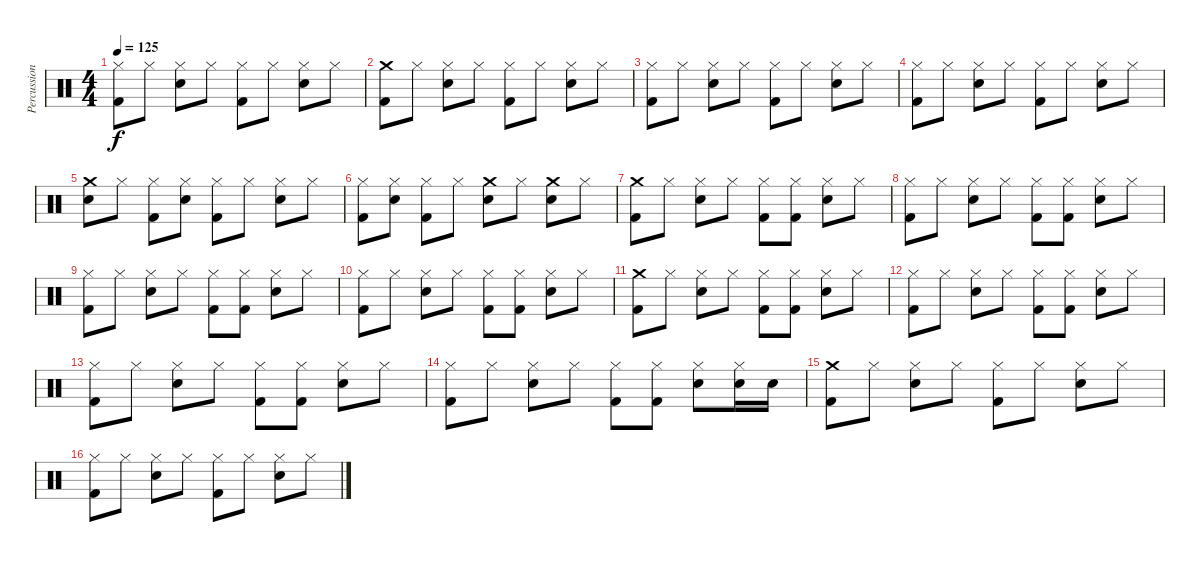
\track ("Percussion" "Percussion") {instrument percussion}
\staff {score}
\articulation defaults
\ts (4 4)
\tempo 125
\clef neutral
\ks c
("Hi-Hat (closed)" "Kick (hit) 2").8{dy f} "Hi-Hat (closed)".8 ("Hi-Hat (closed)" "Snare (hit) 2").8 "Hi-Hat (closed)".8 ("Hi-Hat (closed)" "Kick (hit) 2").8 "Hi-Hat (closed)".8 ("Hi-Hat (closed)" "Snare (hit) 2").8 "Hi-Hat (closed)".8 |
("Crash medium (hit)" "Kick (hit) 2").8 "Hi-Hat (closed)".8 ("Hi-Hat (closed)" "Snare (hit) 2").8 "Hi-Hat (closed)".8 ("Hi-Hat (closed)" "Kick (hit) 2").8 "Hi-Hat (closed)".8 ("Hi-Hat (closed)" "Snare (hit) 2").8 "Hi-Hat (closed)".8 |
("Hi-Hat (closed)" "Kick (hit) 2").8 "Hi-Hat (closed)".8 ("Hi-Hat (closed)" "Snare (hit) 2").8 "Hi-Hat (closed)".8 ("Hi-Hat (closed)" "Kick (hit) 2").8 "Hi-Hat (closed)".8 ("Hi-Hat (closed)" "Snare (hit) 2").8 "Hi-Hat (closed)".8 |
("Hi-Hat (closed)" "Kick (hit) 2").8 "Hi-Hat (closed)".8 ("Hi-Hat (closed)" "Snare (hit) 2").8 "Hi-Hat (closed)".8 ("Hi-Hat (closed)" "Kick (hit) 2").8 "Hi-Hat (closed)".8 ("Hi-Hat (closed)" "Snare (hit) 2").8 "Hi-Hat (closed)".8 |
("Crash medium (hit)" "Snare (hit) 2").8 "Hi-Hat (closed)".8 ("Hi-Hat (closed)" "Kick (hit) 2").8 ("Hi-Hat (closed)" "Snare (hit) 2").8 ("Hi-Hat (closed)" "Kick (hit) 2").8 "Hi-Hat (closed)".8 ("Hi-Hat (closed)" "Snare (hit) 2").8 "Hi-Hat (closed)".8 |
("Hi-Hat (closed)" "Kick (hit) 2").8 ("Hi-Hat (closed)" "Snare (hit) 2").8 ("Hi-Hat (closed)" "Kick (hit) 2").8 "Hi-Hat (closed)".8 ("Crash medium (hit)" "Snare (hit) 2").8 "Hi-Hat (closed)".8 ("Crash medium (hit)" "Snare (hit) 2").8 "Hi-Hat (closed)".8 |
("Crash medium (hit)" "Kick (hit) 2").8 "Hi-Hat (closed)".8 ("Hi-Hat (closed)" "Snare (hit) 2").8 "Hi-Hat (closed)".8 ("Hi-Hat (closed)" "Kick (hit) 2").8 ("Hi-Hat (closed)" "Kick (hit) 2").8 ("Hi-Hat (closed)" "Snare (hit) 2").8 "Hi-Hat (closed)".8 |
("Hi-Hat (closed)" "Kick (hit) 2").8 "Hi-Hat (closed)".8 ("Hi-Hat (closed)" "Snare (hit) 2").8 "Hi-Hat (closed)".8 ("Hi-Hat (closed)" "Kick (hit) 2").8 ("Hi-Hat (closed)" "Kick (hit) 2").8 ("Hi-Hat (closed)" "Snare (hit) 2").8 "Hi-Hat (closed)".8 |
("Hi-Hat (closed)" "Kick (hit) 2").8 "Hi-Hat (closed)".8 ("Hi-Hat (closed)" "Snare (hit) 2").8 "Hi-Hat (closed)".8 ("Hi-Hat (closed)" "Kick (hit) 2").8 ("Hi-Hat (closed)" "Kick (hit) 2").8 ("Hi-Hat (closed)" "Snare (hit) 2").8 "Hi-Hat (closed)".8 |
("Hi-Hat (closed)" "Kick (hit) 2").8 "Hi-Hat (closed)".8 ("Hi-Hat (closed)" "Snare (hit) 2").8 "Hi-Hat (closed)".8 ("Hi-Hat (closed)" "Kick (hit) 2").8 ("Hi-Hat (closed)" "Kick (hit) 2").8 ("Hi-Hat (closed)" "Snare (hit) 2").8 "Hi-Hat (closed)".8 |
("Crash medium (hit)" "Kick (hit) 2").8 "Hi-Hat (closed)".8 ("Hi-Hat (closed)" "Snare (hit) 2").8 "Hi-Hat (closed)".8 ("Hi-Hat (closed)" "Kick (hit) 2").8 ("Hi-Hat (closed)" "Kick (hit) 2").8 ("Hi-Hat (closed)" "Snare (hit) 2").8 "Hi-Hat (closed)".8 |
("Hi-Hat (closed)" "Kick (hit) 2").8 "Hi-Hat (closed)".8 ("Hi-Hat (closed)" "Snare (hit) 2").8 "Hi-Hat (closed)".8 ("Hi-Hat (closed)" "Kick (hit) 2").8 ("Hi-Hat (closed)" "Kick (hit) 2").8 ("Hi-Hat (closed)" "Snare (hit) 2").8 "Hi-Hat (closed)".8 |
("Hi-Hat (closed)" "Kick (hit) 2").8 "Hi-Hat (closed)".8 ("Hi-Hat (closed)" "Snare (hit) 2").8 "Hi-Hat (closed)".8 ("Hi-Hat (closed)" "Kick (hit) 2").8 ("Hi-Hat (closed)" "Kick (hit) 2").8 ("Hi-Hat (closed)" "Snare (hit) 2").8 "Hi-Hat (closed)".8 |
("Hi-Hat (closed)" "Kick (hit) 2").8 "Hi-Hat (closed)".8 ("Hi-Hat (closed)" "Snare (hit) 2").8 "Hi-Hat (closed)".8 ("Hi-Hat (closed)" "Kick (hit) 2").8 ("Hi-Hat (closed)" "Kick (hit) 2").8 ("Hi-Hat (closed)" "Snare (hit) 2").8 ("Hi-Hat (closed)" "Snare (hit) 2").16 "Snare (hit) 2".16 |
("Crash medium (hit)" "Kick (hit) 2").8 "Hi-Hat (closed)".8 ("Hi-Hat (closed)" "Snare (hit) 2").8 "Hi-Hat (closed)".8 ("Hi-Hat (closed)" "Kick (hit) 2").8 "Hi-Hat (closed)".8 ("Hi-Hat (closed)" "Snare (hit) 2").8 "Hi-Hat (closed)".8 |
("Hi-Hat (closed)" "Kick (hit) 2").8 "Hi-Hat (closed)".8 ("Hi-Hat (closed)" "Snare (hit) 2").8 "Hi-Hat (closed)".8 ("Hi-Hat (closed)" "Kick (hit) 2").8 "Hi-Hat (closed)".8 ("Hi-Hat (closed)" "Snare (hit) 2").8 "Hi-Hat (closed)".8
